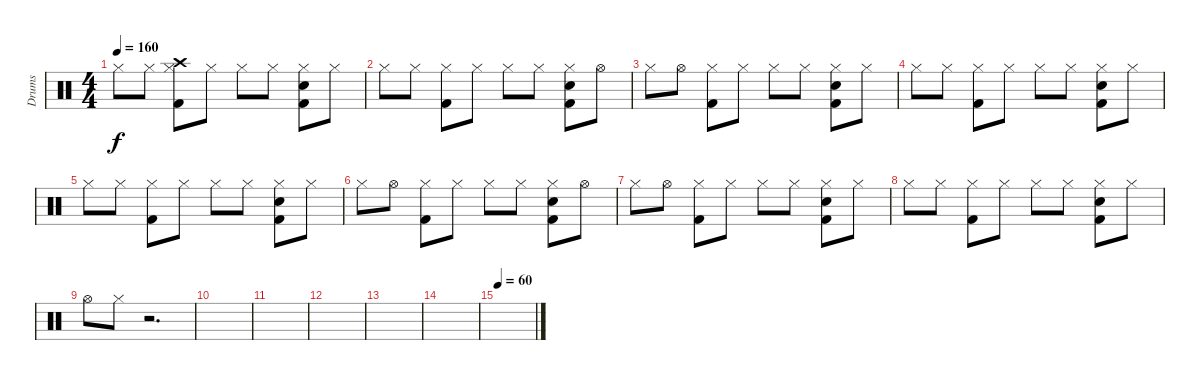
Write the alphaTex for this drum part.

\track ("Drums" "Drums") {instrument percussion}
\staff {score}
\articulation defaults
\ts (4 4)
\tempo 160
\clef neutral
\ks c "Hi-Hat (closed)".8{dy f} "Hi-Hat (closed)".8
("Crash high (hit)" "Kick (hit) 2" "Hi-Hat (closed)").8 "Hi-Hat (closed)".8 "Hi-Hat (closed)".8 "Hi-Hat (closed)".8 ("Snare (hit) 2" "Kick (hit) 2" "Hi-Hat (closed)").8 "Hi-Hat (closed)".8 |
"Hi-Hat (closed)".8 "Hi-Hat (closed)".8 ("Kick (hit) 2" "Hi-Hat (closed)").8 "Hi-Hat (closed)".8 "Hi-Hat (closed)".8 "Hi-Hat (closed)".8 ("Snare (hit) 2" "Kick (hit) 2" "Hi-Hat (closed)").8 "Hi-Hat (open)".8 |
"Hi-Hat (closed)".8 "Hi-Hat (open)".8 ("Kick (hit) 2" "Hi-Hat (closed)").8 "Hi-Hat (closed)".8 "Hi-Hat (closed)".8 "Hi-Hat (closed)".8 ("Snare (hit) 2" "Kick (hit) 2" "Hi-Hat (closed)").8 "Hi-Hat (closed)".8 |
"Hi-Hat (closed)".8 "Hi-Hat (closed)".8 ("Kick (hit) 2" "Hi-Hat (closed)").8 "Hi-Hat (closed)".8 "Hi-Hat (closed)".8 "Hi-Hat (closed)".8 ("Snare (hit) 2" "Kick (hit) 2" "Hi-Hat (closed)").8 "Hi-Hat (closed)".8 |
"Hi-Hat (closed)".8 "Hi-Hat (closed)".8 ("Kick (hit) 2" "Hi-Hat (closed)").8 "Hi-Hat (closed)".8 "Hi-Hat (closed)".8 "Hi-Hat (closed)".8 ("Snare (hit) 2" "Kick (hit) 2" "Hi-Hat (closed)").8 "Hi-Hat (closed)".8 |
"Hi-Hat (closed)".8 "Hi-Hat (open)".8 ("Kick (hit) 2" "Hi-Hat (closed)").8 "Hi-Hat (closed)".8 "Hi-Hat (closed)".8 "Hi-Hat (closed)".8 ("Snare (hit) 2" "Kick (hit) 2" "Hi-Hat (closed)").8 "Hi-Hat (open)".8 |
"Hi-Hat (closed)".8 "Hi-Hat (open)".8 ("Kick (hit) 2" "Hi-Hat (closed)").8 "Hi-Hat (closed)".8 "Hi-Hat (closed)".8 "Hi-Hat (closed)".8 ("Snare (hit) 2" "Kick (hit) 2" "Hi-Hat (closed)").8 "Hi-Hat (closed)".8 |
"Hi-Hat (closed)".8 "Hi-Hat (closed)".8 ("Kick (hit) 2" "Hi-Hat (closed)").8 "Hi-Hat (closed)".8 "Hi-Hat (closed)".8 "Hi-Hat (closed)".8 ("Snare (hit) 2" "Kick (hit) 2" "Hi-Hat (closed)").8 "Hi-Hat (closed)".8 |
"Hi-Hat (open)".8 "Hi-Hat (closed)".8 r.2{d} |
|
|
|
|
|
\tempo 60
